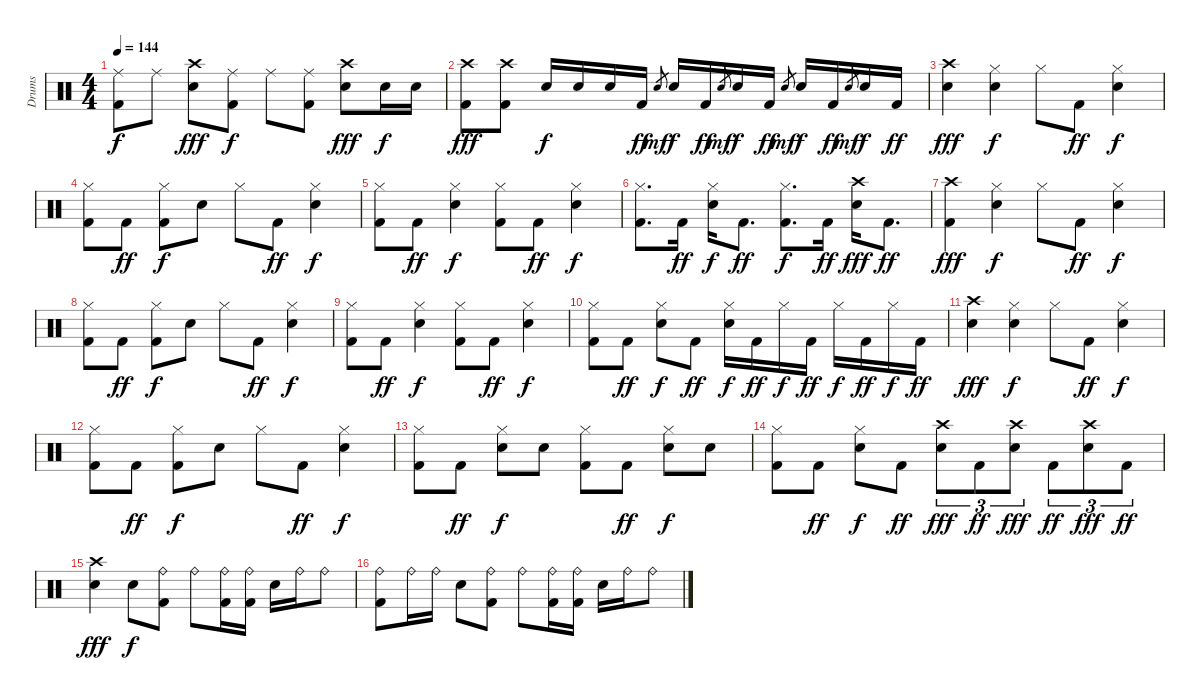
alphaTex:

\track ("Drums" "Drums") {instrument percussion}
\staff {score}
\articulation defaults
\ts (4 4)
\tempo 144
\clef neutral
\ks c
("Ride (middle)" "Kick (hit) 2").8{dy f} "Ride (middle)".8 ("Crash high (hit)" "Snare (hit) 2").8{dy fff} ("Ride (middle)" "Kick (hit) 2").8{dy f} "Ride (middle)".8 ("Ride (middle)" "Kick (hit) 2").8 ("Crash high (hit)" "Snare (hit) 2").8{dy fff} "Snare (hit) 2".16{dy f} "Snare (hit) 2".16 |
("Crash high (hit)" "Kick (hit) 2").8{dy fff} ("Crash high (hit)" "Kick (hit) 2").8 "Snare (hit) 2".16{dy f} "Snare (hit) 2".16 "Snare (hit) 2".16 "Kick (hit) 2".16{dy ff} "Snare (hit)".8{gr dy mf} "Snare (hit) 2".16{dy f} "Kick (hit) 2".16{dy ff} "Snare (hit)".8{gr dy mf} "Snare (hit) 2".16{dy f} "Kick (hit) 2".16{dy ff} "Snare (hit)".8{gr dy mf} "Snare (hit) 2".16{dy f} "Kick (hit) 2".16{dy ff} "Snare (hit)".8{gr dy mf} "Snare (hit) 2".16{dy f} "Kick (hit) 2".16{dy ff} |
("Crash high (hit)" "Snare (hit) 2").4{dy fff} ("Hi-Hat (closed)" "Snare (hit) 2").4{dy f} "Hi-Hat (closed)".8 "Kick (hit) 2".8{dy ff} ("Hi-Hat (closed)" "Snare (hit) 2").4{dy f} |
("Hi-Hat (closed)" "Kick (hit) 2").8 "Kick (hit) 2".8{dy ff} ("Hi-Hat (closed)" "Kick (hit) 2").8{dy f} "Snare (hit) 2".8 "Hi-Hat (closed)".8 "Kick (hit) 2".8{dy ff} ("Hi-Hat (closed)" "Snare (hit) 2").4{dy f} |
("Hi-Hat (closed)" "Kick (hit) 2").8 "Kick (hit) 2".8{dy ff} ("Hi-Hat (closed)" "Snare (hit) 2").4{dy f} ("Hi-Hat (closed)" "Kick (hit) 2").8 "Kick (hit) 2".8{dy ff} ("Hi-Hat (closed)" "Snare (hit) 2").4{dy f} |
("Hi-Hat (closed)" "Kick (hit) 2").8{d} "Kick (hit) 2".16{dy ff} ("Hi-Hat (closed)" "Snare (hit) 2").16{dy f} "Kick (hit) 2".8{d dy ff} ("Hi-Hat (closed)" "Kick (hit) 2").8{d dy f} "Kick (hit) 2".16{dy ff} ("Crash high (hit)" "Snare (hit) 2").16{dy fff} "Kick (hit) 2".8{d dy ff} |
("Crash high (hit)" "Kick (hit) 2").4{dy fff} ("Hi-Hat (closed)" "Snare (hit) 2").4{dy f} "Hi-Hat (closed)".8 "Kick (hit) 2".8{dy ff} ("Hi-Hat (closed)" "Snare (hit) 2").4{dy f} |
("Hi-Hat (closed)" "Kick (hit) 2").8 "Kick (hit) 2".8{dy ff} ("Hi-Hat (closed)" "Kick (hit) 2").8{dy f} "Snare (hit) 2".8 "Hi-Hat (closed)".8 "Kick (hit) 2".8{dy ff} ("Hi-Hat (closed)" "Snare (hit) 2").4{dy f} |
("Hi-Hat (closed)" "Kick (hit) 2").8 "Kick (hit) 2".8{dy ff} ("Hi-Hat (closed)" "Snare (hit) 2").4{dy f} ("Hi-Hat (closed)" "Kick (hit) 2").8 "Kick (hit) 2".8{dy ff} ("Hi-Hat (closed)" "Snare (hit) 2").4{dy f} |
("Hi-Hat (closed)" "Kick (hit) 2").8 "Kick (hit) 2".8{dy ff} ("Hi-Hat (closed)" "Snare (hit) 2").8{dy f} "Kick (hit) 2".8{dy ff} ("Hi-Hat (closed)" "Snare (hit) 2").16{dy f} "Kick (hit) 2".16{dy ff} "Hi-Hat (closed)".16{dy f} "Kick (hit) 2".16{dy ff} "Hi-Hat (closed)".16{dy f} "Kick (hit) 2".16{dy ff} "Hi-Hat (closed)".16{dy f} "Kick (hit) 2".16{dy ff} |
("Crash high (hit)" "Snare (hit) 2").4{dy fff} ("Hi-Hat (closed)" "Snare (hit) 2").4{dy f} "Hi-Hat (closed)".8 "Kick (hit) 2".8{dy ff} ("Hi-Hat (closed)" "Snare (hit) 2").4{dy f} |
("Hi-Hat (closed)" "Kick (hit) 2").8 "Kick (hit) 2".8{dy ff} ("Hi-Hat (closed)" "Kick (hit) 2").8{dy f} "Snare (hit) 2".8 "Hi-Hat (closed)".8 "Kick (hit) 2".8{dy ff} ("Hi-Hat (closed)" "Snare (hit) 2").4{dy f} |
("Hi-Hat (closed)" "Kick (hit) 2").8 "Kick (hit) 2".8{dy ff} ("Hi-Hat (closed)" "Snare (hit) 2").8{dy f} "Snare (hit) 2".8 ("Hi-Hat (closed)" "Kick (hit) 2").8 "Kick (hit) 2".8{dy ff} ("Hi-Hat (closed)" "Snare (hit) 2").8{dy f} "Snare (hit) 2".8 |
("Hi-Hat (closed)" "Kick (hit) 2").8 "Kick (hit) 2".8{dy ff} ("Hi-Hat (closed)" "Snare (hit) 2").8{dy f} "Kick (hit) 2".8{dy ff} ("Crash high (hit)" "Snare (hit) 2").8{tu (3 2) dy fff} "Kick (hit) 2".8{tu (3 2) dy ff} ("Crash high (hit)" "Snare (hit) 2").8{tu (3 2) dy fff} "Kick (hit) 2".8{tu (3 2) dy ff} ("Crash high (hit)" "Snare (hit) 2").8{tu (3 2) dy fff} "Kick (hit) 2".8{tu (3 2) dy ff} |
("Crash high (hit)" "Snare (hit) 2").4{dy fff} "Snare (hit) 2".8{dy f} ("Ride (bell)" "Kick (hit) 2").8 "Ride (bell)".8 ("Ride (bell)" "Kick (hit) 2").16 ("Ride (bell)" "Kick (hit) 2").16 "Snare (hit) 2".16 "Ride (bell)".16 "Ride (bell)".8 |
("Ride (bell)" "Kick (hit) 2").8 "Ride (bell)".16 "Ride (bell)".16 "Snare (hit) 2".8 ("Ride (bell)" "Kick (hit) 2").8 "Ride (bell)".8 ("Ride (bell)" "Kick (hit) 2").16 ("Ride (bell)" "Kick (hit) 2").16 "Snare (hit) 2".16 "Ride (bell)".16 "Ride (bell)".8
